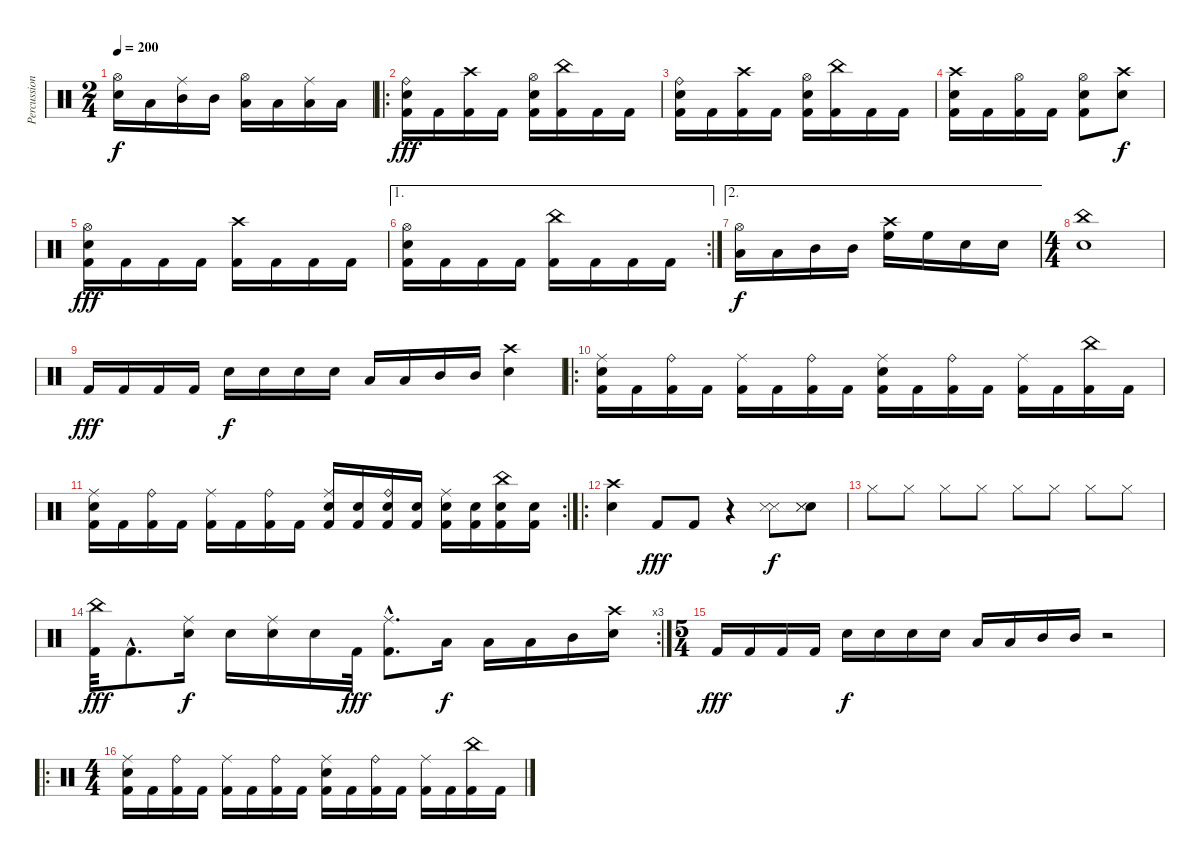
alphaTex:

\track ("Percussion" "Percussion") {instrument percussion}
\staff {score}
\articulation defaults
\ts (2 4)
\tempo 200
\clef neutral
\ks c
("Hi-Hat (open)" "Electric Snare (hit)").16{dy f} "Low Tom (hit)".16 ("Ride (middle)" "Mid Tom (hit)").16 "Mid Tom (hit)".16 ("Hi-Hat (open)" "Low Tom (hit)").16 "Low Tom (hit)".16 ("Ride (middle)" "Low Tom (hit)").16 "Low Tom (hit)".16 |
\ro
("Ride (bell)" "Electric Snare (hit)" "Kick (hit) 2").16{dy fff} "Kick (hit) 2".16 ("Crash high (hit)" "Kick (hit) 2").16 "Kick (hit) 2".16 ("Hi-Hat (open)" "Electric Snare (hit)" "Kick (hit) 2").16 ("China (hit)" "Kick (hit) 2").16 "Kick (hit) 2".16 "Kick (hit) 2".16 |
("Ride (bell)" "Electric Snare (hit)" "Kick (hit) 2").16 "Kick (hit) 2".16 ("Crash high (hit)" "Kick (hit) 2").16 "Kick (hit) 2".16 ("Hi-Hat (open)" "Electric Snare (hit)" "Kick (hit) 2").16 ("China (hit)" "Kick (hit) 2").16 "Kick (hit) 2".16 "Kick (hit) 2".16 |
("Crash high (hit)" "Electric Snare (hit)" "Kick (hit) 2").16 "Kick (hit) 2".16 ("Hi-Hat (open)" "Kick (hit) 2").16 "Kick (hit) 2".16 ("Hi-Hat (open)" "Electric Snare (hit)" "Kick (hit) 2").8 ("Crash high (hit)" "Electric Snare (hit)").8{dy f} |
("Hi-Hat (open)" "Electric Snare (hit)" "Kick (hit) 2").16{dy fff} "Kick (hit) 2".16 "Kick (hit) 2".16 "Kick (hit) 2".16 ("Crash high (hit)" "Kick (hit) 2").16 "Kick (hit) 2".16 "Kick (hit) 2".16 "Kick (hit) 2".16 |
\ae 1
\rc 2
("Hi-Hat (open)" "Electric Snare (hit)" "Kick (hit) 2").16 "Kick (hit) 2".16 "Kick (hit) 2".16 "Kick (hit) 2".16 ("China (hit)" "Kick (hit) 2").16 "Kick (hit) 2".16 "Kick (hit) 2".16 "Kick (hit) 2".16 |
\ae 2
("Hi-Hat (open)" "Low Tom (hit)").16{dy f} "Low Tom (hit)".16 "Mid Tom (hit)".16 "Mid Tom (hit)".16 ("Crash high (hit)" "High Floor Tom (hit)").16 "High Floor Tom (hit)".16 "Electric Snare (hit)".16 "Electric Snare (hit)".16 |
\ts (4 4)
("China (hit)" "Electric Snare (hit)").1 |
"Kick (hit) 2".16{dy fff} "Kick (hit) 2".16 "Kick (hit) 2".16 "Kick (hit) 2".16 "Electric Snare (hit)".16{dy f} "Electric Snare (hit)".16 "Electric Snare (hit)".16 "Electric Snare (hit)".16 "Low Tom (hit)".16 "Low Tom (hit)".16 "Mid Tom (hit)".16 "Mid Tom (hit)".16 ("Crash high (hit)" "Electric Snare (hit)").4 |
\ro
("Ride (middle)" "Electric Snare (hit)" "Kick (hit) 2").16 "Kick (hit) 2".16 ("Ride (bell)" "Kick (hit) 2").16 "Kick (hit) 2".16 ("Ride (middle)" "Kick (hit) 2").16 "Kick (hit) 2".16 ("Ride (bell)" "Kick (hit) 2").16 "Kick (hit) 2".16 ("Ride (middle)" "Electric Snare (hit)" "Kick (hit) 2").16 "Kick (hit) 2".16 ("Ride (bell)" "Kick (hit) 2").16 "Kick (hit) 2".16 ("Ride (middle)" "Kick (hit) 2").16 "Kick (hit) 2".16 ("China (hit)" "Kick (hit) 2").16 "Kick (hit) 2".16 |
\rc 2
("Ride (middle)" "Electric Snare (hit)" "Kick (hit) 2").16 "Kick (hit) 2".16 ("Ride (bell)" "Kick (hit) 2").16 "Kick (hit) 2".16 ("Ride (middle)" "Kick (hit) 2").16 "Kick (hit) 2".16 ("Ride (bell)" "Kick (hit) 2").16 "Kick (hit) 2".16 ("Ride (middle)" "Electric Snare (hit)" "Kick (hit) 2").16 ("Electric Snare (hit)" "Kick (hit) 2").16 ("Ride (bell)" "Electric Snare (hit)" "Kick (hit) 2").16 ("Electric Snare (hit)" "Kick (hit) 2").16 ("Ride (middle)" "Electric Snare (hit)" "Kick (hit) 2").16 ("Electric Snare (hit)" "Kick (hit) 2").16 ("China (hit)" "Electric Snare (hit)" "Kick (hit) 2").16 ("Electric Snare (hit)" "Kick (hit) 2").16 |
\ro
("Crash high (hit)" "Electric Snare (hit)").4 "Kick (hit) 2".8{dy fff} "Kick (hit) 2".8 r.4 ("Snare (side stick) 3" "Metronome (hit)").8{dy f} ("Metronome (bell)" "Snare (side stick) 3" "Metronome (hit)").8 |
"Hi-Hat (closed)".8 "Hi-Hat (closed)".8 "Hi-Hat (closed)".8 "Hi-Hat (closed)".8 "Hi-Hat (closed)".8 "Hi-Hat (closed)".8 "Hi-Hat (closed)".8 "Hi-Hat (closed)".8 |
\rc 3
("China (hit)" "Kick (hit) 2").32{dy fff} "Kick (hit) 2"{hac}.8{d} ("Ride (middle)" "Electric Snare (hit)").16{dy f} "Electric Snare (hit)".16 ("Ride (middle)" "Electric Snare (hit)").16 "Electric Snare (hit)".16 "Kick (hit) 2".32{dy fff} ("Ride (middle)"{hac} "Kick (hit) 2"{hac}).8{d} "Low Tom (hit)".16{dy f} "Low Tom (hit)".16 "Low Tom (hit)".16 "Mid Tom (hit)".16 ("Crash high (hit)" "Electric Snare (hit)").16 |
\ts (5 4)
"Kick (hit) 2".16{dy fff} "Kick (hit) 2".16 "Kick (hit) 2".16 "Kick (hit) 2".16 "Electric Snare (hit)".16{dy f} "Electric Snare (hit)".16 "Electric Snare (hit)".16 "Electric Snare (hit)".16 "Low Tom (hit)".16 "Low Tom (hit)".16 "Mid Tom (hit)".16 "Mid Tom (hit)".16 r.2 |
\ro
\ts (4 4)
("Ride (middle)" "Electric Snare (hit)" "Kick (hit) 2").16 "Kick (hit) 2".16 ("Ride (bell)" "Kick (hit) 2").16 "Kick (hit) 2".16 ("Ride (middle)" "Kick (hit) 2").16 "Kick (hit) 2".16 ("Ride (bell)" "Kick (hit) 2").16 "Kick (hit) 2".16 ("Ride (middle)" "Electric Snare (hit)" "Kick (hit) 2").16 "Kick (hit) 2".16 ("Ride (bell)" "Kick (hit) 2").16 "Kick (hit) 2".16 ("Ride (middle)" "Kick (hit) 2").16 "Kick (hit) 2".16 ("China (hit)" "Kick (hit) 2").16 "Kick (hit) 2".16
